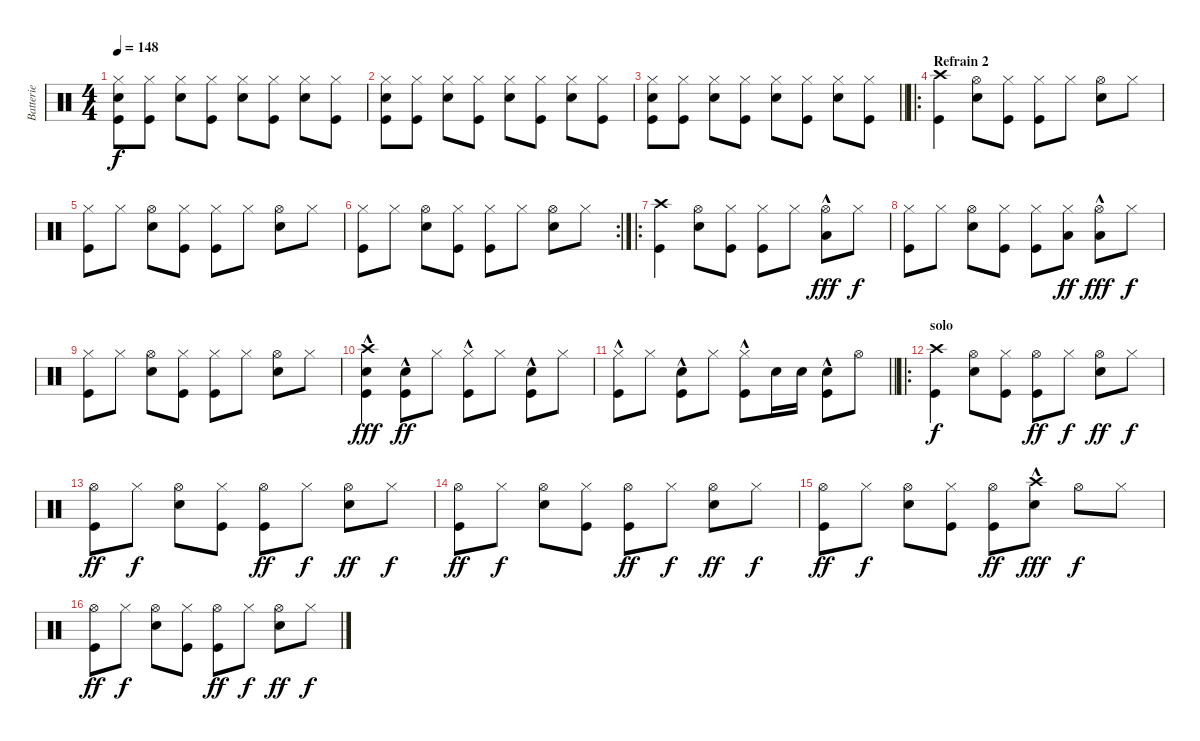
\track ("Batterie" "Batterie") {instrument percussion}
\staff {score}
\articulation defaults
\ts (4 4)
\tempo 148
\clef neutral
\ks c
("Hi-Hat (closed)" "Snare (hit) 2" "Kick (hit)").8{dy f} ("Kick (hit)" "Hi-Hat (closed)").8 ("Hi-Hat (closed)" "Snare (hit) 2").8 ("Kick (hit)" "Hi-Hat (closed)").8 ("Snare (hit) 2" "Hi-Hat (closed)").8 ("Kick (hit)" "Hi-Hat (closed)").8 ("Snare (hit) 2" "Hi-Hat (closed)").8 ("Kick (hit)" "Hi-Hat (closed)").8 |
("Hi-Hat (closed)" "Snare (hit) 2" "Kick (hit)").8 ("Kick (hit)" "Hi-Hat (closed)").8 ("Hi-Hat (closed)" "Snare (hit) 2").8 ("Kick (hit)" "Hi-Hat (closed)").8 ("Snare (hit) 2" "Hi-Hat (closed)").8 ("Kick (hit)" "Hi-Hat (closed)").8 ("Snare (hit) 2" "Hi-Hat (closed)").8 ("Kick (hit)" "Hi-Hat (closed)").8 |
\barLineRight lightlight
("Hi-Hat (closed)" "Snare (hit) 2" "Kick (hit)").8 ("Kick (hit)" "Hi-Hat (closed)").8 ("Hi-Hat (closed)" "Snare (hit) 2").8 ("Kick (hit)" "Hi-Hat (closed)").8 ("Snare (hit) 2" "Hi-Hat (closed)").8 ("Kick (hit)" "Hi-Hat (closed)").8 ("Snare (hit) 2" "Hi-Hat (closed)").8 ("Kick (hit)" "Hi-Hat (closed)").8 |
\ro
\section ("" "Refrain 2")
("Kick (hit)" "Crash high (hit)").4 ("Snare (hit) 2" "Hi-Hat (open)").8 ("Kick (hit)" "Hi-Hat (closed)").8 ("Kick (hit)" "Hi-Hat (closed)").8 "Hi-Hat (closed)".8 ("Snare (hit) 2" "Hi-Hat (open)").8 "Hi-Hat (closed)".8 |
("Kick (hit)" "Hi-Hat (closed)").8 "Hi-Hat (closed)".8 ("Snare (hit) 2" "Hi-Hat (open)").8 ("Hi-Hat (closed)" "Kick (hit)").8 ("Kick (hit)" "Hi-Hat (closed)").8 "Hi-Hat (closed)".8 ("Hi-Hat (open)" "Snare (hit) 2").8 "Hi-Hat (closed)".8 |
\rc 2
("Kick (hit)" "Hi-Hat (closed)").8 "Hi-Hat (closed)".8 ("Snare (hit) 2" "Hi-Hat (open)").8 ("Hi-Hat (closed)" "Kick (hit)").8 ("Kick (hit)" "Hi-Hat (closed)").8 "Hi-Hat (closed)".8 ("Hi-Hat (open)" "Snare (hit) 2").8 "Hi-Hat (closed)".8 |
\ro
("Kick (hit)" "Crash high (hit)").4 ("Snare (hit) 2" "Hi-Hat (open)").8 ("Kick (hit)" "Hi-Hat (closed)").8 ("Kick (hit)" "Hi-Hat (closed)").8 "Hi-Hat (closed)".8 ("Hi-Hat (open)" "Low Floor Tom (hit)"{hac}).8{dy fff} "Hi-Hat (closed)".8{dy f} |
("Kick (hit)" "Hi-Hat (closed)").8 "Hi-Hat (closed)".8 ("Snare (hit) 2" "Hi-Hat (open)").8 ("Hi-Hat (closed)" "Kick (hit)").8 ("Kick (hit)" "Hi-Hat (closed)").8 ("Hi-Hat (closed)" "Low Tom (hit)").8{dy ff} ("Hi-Hat (open)" "Low Floor Tom (hit)"{hac}).8{dy fff} "Hi-Hat (closed)".8{dy f} |
("Kick (hit)" "Hi-Hat (closed)").8 "Hi-Hat (closed)".8 ("Snare (hit) 2" "Hi-Hat (open)").8 ("Hi-Hat (closed)" "Kick (hit)").8 ("Kick (hit)" "Hi-Hat (closed)").8 "Hi-Hat (closed)".8 ("Hi-Hat (open)" "Snare (hit) 2").8 "Hi-Hat (closed)".8 |
("Kick (hit)"{hac} "Crash high (hit)" "Snare (hit) 2").4{dy fff} ("Kick (hit)"{hac} "Snare (hit) 2").8{dy ff} "Hi-Hat (closed)".8 ("Kick (hit)"{hac} "Hi-Hat (closed)").8 "Hi-Hat (closed)".8 ("Kick (hit)"{hac} "Snare (hit) 2").8 "Hi-Hat (closed)".8 |
\barLineRight lightlight
("Kick (hit)"{hac} "Hi-Hat (closed)").8 "Hi-Hat (closed)".8 ("Kick (hit)"{hac} "Snare (hit) 2").8 "Hi-Hat (closed)".8 ("Kick (hit)"{hac} "Hi-Hat (closed)").8 "Snare (hit) 2".16 "Snare (hit) 2".16 ("Kick (hit)"{hac} "Snare (hit) 2").8 "Hi-Hat (open)".8 |
\ro
\section ("" "solo")
("Kick (hit)" "Crash high (hit)").4{dy f} ("Snare (hit) 2" "Hi-Hat (open)").8 ("Kick (hit)" "Hi-Hat (closed)").8 ("Kick (hit)" "Hi-Hat (open)").8{dy ff} "Hi-Hat (closed)".8{dy f} ("Snare (hit) 2" "Hi-Hat (open)").8{dy ff} "Hi-Hat (closed)".8{dy f} |
("Kick (hit)" "Hi-Hat (open)").8{dy ff} "Hi-Hat (closed)".8{dy f} ("Snare (hit) 2" "Hi-Hat (open)").8 ("Hi-Hat (closed)" "Kick (hit)").8 ("Kick (hit)" "Hi-Hat (open)").8{dy ff} "Hi-Hat (closed)".8{dy f} ("Hi-Hat (open)" "Snare (hit) 2").8{dy ff} "Hi-Hat (closed)".8{dy f} |
("Kick (hit)" "Hi-Hat (open)").8{dy ff} "Hi-Hat (closed)".8{dy f} ("Snare (hit) 2" "Hi-Hat (open)").8 ("Hi-Hat (closed)" "Kick (hit)").8 ("Kick (hit)" "Hi-Hat (open)").8{dy ff} "Hi-Hat (closed)".8{dy f} ("Hi-Hat (open)" "Snare (hit) 2").8{dy ff} "Hi-Hat (closed)".8{dy f} |
("Kick (hit)" "Hi-Hat (open)").8{dy ff} "Hi-Hat (closed)".8{dy f} ("Snare (hit) 2" "Hi-Hat (open)").8 ("Hi-Hat (closed)" "Kick (hit)").8 ("Kick (hit)" "Hi-Hat (open)").8{dy ff} ("Crash high (hit)" "Snare (hit) 2"{hac}).8{dy fff} "Hi-Hat (open)".8{dy f} "Hi-Hat (closed)".8 |
("Kick (hit)" "Hi-Hat (open)").8{dy ff} "Hi-Hat (closed)".8{dy f} ("Snare (hit) 2" "Hi-Hat (open)").8 ("Hi-Hat (closed)" "Kick (hit)").8 ("Kick (hit)" "Hi-Hat (open)").8{dy ff} "Hi-Hat (closed)".8{dy f} ("Hi-Hat (open)" "Snare (hit) 2").8{dy ff} "Hi-Hat (closed)".8{dy f}
